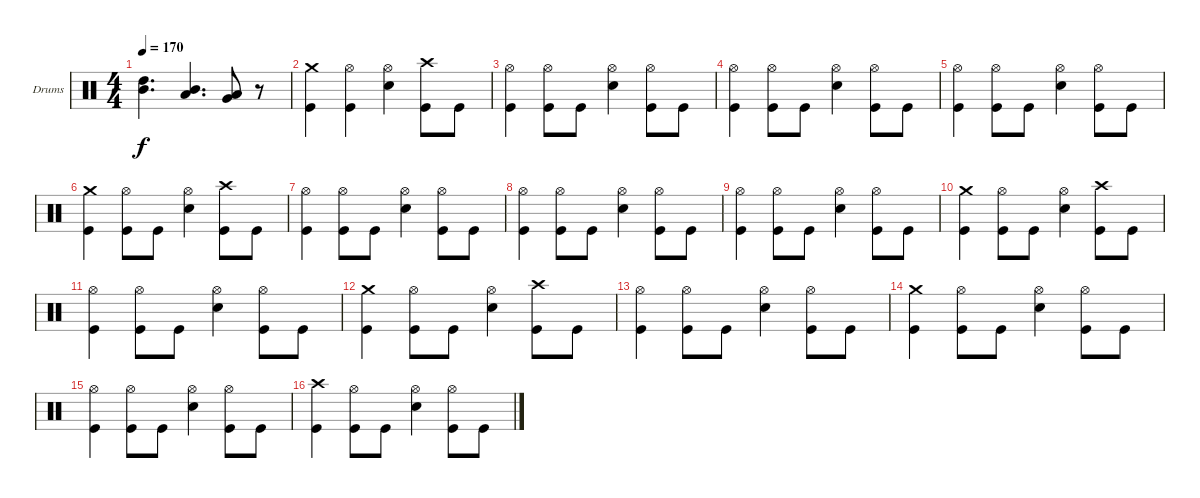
\bracketExtendMode groupsimilarinstruments
\firstSystemTrackNameOrientation horizontal
\otherSystemsTrackNameOrientation horizontal
\track ("Дмитрий Кривенков" "Drums") {instrument percussion}
\staff {score}
\articulation defaults
\ts (4 4)
\tempo 170
\clef neutral
\ks c
("High Tom (hit)" "Mid Tom (hit)").4{d dy f} ("Mid Tom (hit)" "Low Tom (hit)").4{d} ("Very Low Tom (hit)" "Low Tom (hit)").8 r.8 |
("Crash medium (hit)" "Kick (hit)").4 ("Hi-Hat (open)" "Kick (hit)").4 ("Hi-Hat (open)" "Snare (hit) 2").4 ("Crash high (hit)" "Kick (hit)").8 "Kick (hit)".8 |
("Hi-Hat (open)" "Kick (hit)").4 ("Hi-Hat (open)" "Kick (hit)").8 "Kick (hit)".8 ("Hi-Hat (open)" "Snare (hit) 2").4 ("Hi-Hat (open)" "Kick (hit)").8 "Kick (hit)".8 |
("Hi-Hat (open)" "Kick (hit)").4 ("Hi-Hat (open)" "Kick (hit)").8 "Kick (hit)".8 ("Hi-Hat (open)" "Snare (hit) 2").4 ("Hi-Hat (open)" "Kick (hit)").8 "Kick (hit)".8 |
("Hi-Hat (open)" "Kick (hit)").4 ("Hi-Hat (open)" "Kick (hit)").8 "Kick (hit)".8 ("Hi-Hat (open)" "Snare (hit) 2").4 ("Hi-Hat (open)" "Kick (hit)").8 "Kick (hit)".8 |
("Crash medium (hit)" "Kick (hit)").4 ("Hi-Hat (open)" "Kick (hit)").8 "Kick (hit)".8 ("Hi-Hat (open)" "Snare (hit) 2").4 ("Crash high (hit)" "Kick (hit)").8 "Kick (hit)".8 |
("Hi-Hat (open)" "Kick (hit)").4 ("Hi-Hat (open)" "Kick (hit)").8 "Kick (hit)".8 ("Hi-Hat (open)" "Snare (hit) 2").4 ("Hi-Hat (open)" "Kick (hit)").8 "Kick (hit)".8 |
("Hi-Hat (open)" "Kick (hit)").4 ("Hi-Hat (open)" "Kick (hit)").8 "Kick (hit)".8 ("Hi-Hat (open)" "Snare (hit) 2").4 ("Hi-Hat (open)" "Kick (hit)").8 "Kick (hit)".8 |
("Hi-Hat (open)" "Kick (hit)").4 ("Hi-Hat (open)" "Kick (hit)").8 "Kick (hit)".8 ("Hi-Hat (open)" "Snare (hit) 2").4 ("Hi-Hat (open)" "Kick (hit)").8 "Kick (hit)".8 |
("Crash medium (hit)" "Kick (hit)").4 ("Hi-Hat (open)" "Kick (hit)").8 "Kick (hit)".8 ("Hi-Hat (open)" "Snare (hit) 2").4 ("Crash high (hit)" "Kick (hit)").8 "Kick (hit)".8 |
("Hi-Hat (open)" "Kick (hit)").4 ("Hi-Hat (open)" "Kick (hit)").8 "Kick (hit)".8 ("Hi-Hat (open)" "Snare (hit) 2").4 ("Hi-Hat (open)" "Kick (hit)").8 "Kick (hit)".8 |
("Crash medium (hit)" "Kick (hit)").4 ("Hi-Hat (open)" "Kick (hit)").8 "Kick (hit)".8 ("Hi-Hat (open)" "Snare (hit) 2").4 ("Crash high (hit)" "Kick (hit)").8 "Kick (hit)".8 |
("Hi-Hat (open)" "Kick (hit)").4 ("Hi-Hat (open)" "Kick (hit)").8 "Kick (hit)".8 ("Hi-Hat (open)" "Snare (hit) 2").4 ("Hi-Hat (open)" "Kick (hit)").8 "Kick (hit)".8 |
("Crash medium (hit)" "Kick (hit)").4 ("Hi-Hat (open)" "Kick (hit)").8 "Kick (hit)".8 ("Hi-Hat (open)" "Snare (hit) 2").4 ("Hi-Hat (open)" "Kick (hit)").8 "Kick (hit)".8 |
("Hi-Hat (open)" "Kick (hit)").4 ("Hi-Hat (open)" "Kick (hit)").8 "Kick (hit)".8 ("Hi-Hat (open)" "Snare (hit) 2").4 ("Hi-Hat (open)" "Kick (hit)").8 "Kick (hit)".8 |
("Crash high (hit)" "Kick (hit)").4 ("Hi-Hat (open)" "Kick (hit)").8 "Kick (hit)".8 ("Hi-Hat (open)" "Snare (hit) 2").4 ("Hi-Hat (open)" "Kick (hit)").8 "Kick (hit)".8
